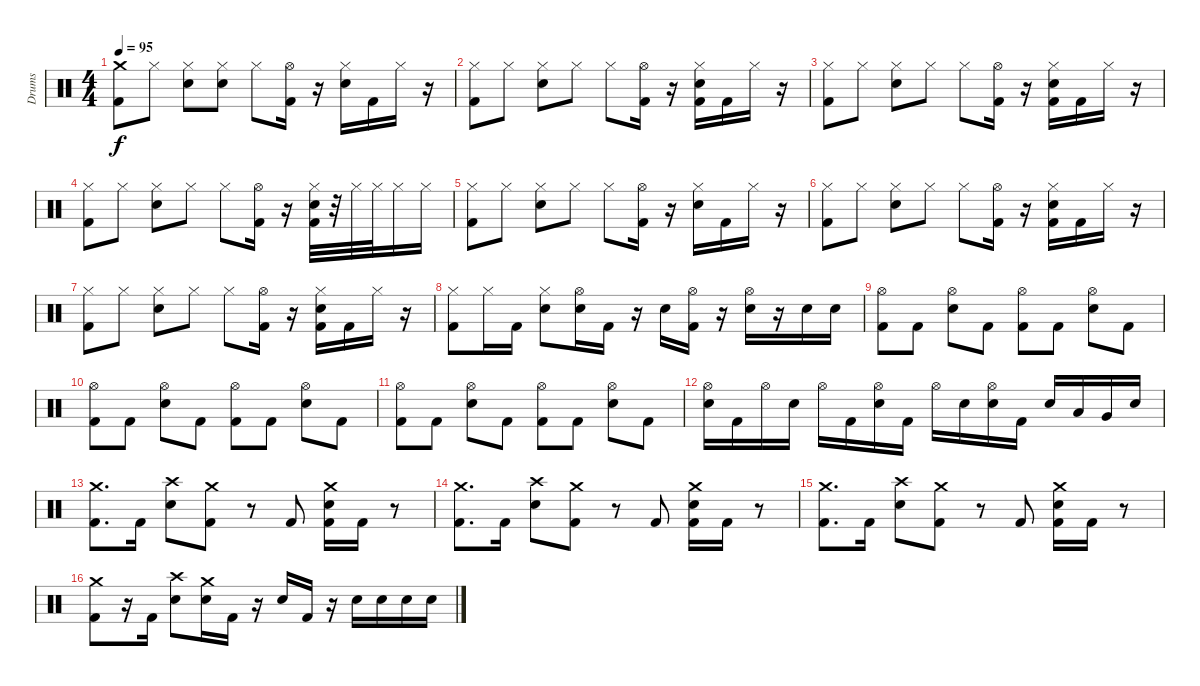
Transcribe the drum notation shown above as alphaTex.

\track ("Drums" "Drums") {instrument percussion}
\staff {score}
\articulation defaults
\ts (4 4)
\tempo 95
\clef neutral
\ks c
("Crash medium (hit)" "Kick (hit) 2").8{dy f} "Hi-Hat (closed)".8 ("Hi-Hat (closed)" "Electric Snare (hit)").8 ("Hi-Hat (closed)" "Electric Snare (hit)").8 "Hi-Hat (closed)".8 ("Hi-Hat (open)" "Kick (hit) 2").16 r.16 ("Hi-Hat (closed)" "Electric Snare (hit)").16 "Kick (hit) 2".16 "Hi-Hat (closed)".16 r.16 |
("Hi-Hat (closed)" "Kick (hit) 2").8 "Hi-Hat (closed)".8 ("Hi-Hat (closed)" "Electric Snare (hit)").8 "Hi-Hat (closed)".8 "Hi-Hat (closed)".8 ("Hi-Hat (open)" "Kick (hit) 2").16 r.16 ("Hi-Hat (closed)" "Electric Snare (hit)" "Kick (hit) 2").16 "Kick (hit) 2".16 "Hi-Hat (closed)".16 r.16 |
("Hi-Hat (closed)" "Kick (hit) 2").8 "Hi-Hat (closed)".8 ("Hi-Hat (closed)" "Electric Snare (hit)").8 "Hi-Hat (closed)".8 "Hi-Hat (closed)".8 ("Hi-Hat (open)" "Kick (hit) 2").16 r.16 ("Hi-Hat (closed)" "Electric Snare (hit)" "Kick (hit) 2").16 "Kick (hit) 2".16 "Hi-Hat (closed)".16 r.16 |
("Hi-Hat (closed)" "Kick (hit) 2").8 "Hi-Hat (closed)".8 ("Hi-Hat (closed)" "Electric Snare (hit)").8 "Hi-Hat (closed)".8 "Hi-Hat (closed)".8 ("Hi-Hat (open)" "Kick (hit) 2").16 r.16 ("Hi-Hat (closed)" "Electric Snare (hit)" "Kick (hit) 2").32 r.32 "Hi-Hat (closed)".32 "Hi-Hat (closed)".32 "Hi-Hat (closed)".16 "Hi-Hat (closed)".16 |
("Hi-Hat (closed)" "Kick (hit) 2").8 "Hi-Hat (closed)".8 ("Hi-Hat (closed)" "Electric Snare (hit)").8 "Hi-Hat (closed)".8 "Hi-Hat (closed)".8 ("Hi-Hat (open)" "Kick (hit) 2").16 r.16 ("Hi-Hat (closed)" "Electric Snare (hit)").16 "Kick (hit) 2".16 "Hi-Hat (closed)".16 r.16 |
("Hi-Hat (closed)" "Kick (hit) 2").8 "Hi-Hat (closed)".8 ("Hi-Hat (closed)" "Electric Snare (hit)").8 "Hi-Hat (closed)".8 "Hi-Hat (closed)".8 ("Hi-Hat (open)" "Kick (hit) 2").16 r.16 ("Hi-Hat (closed)" "Electric Snare (hit)" "Kick (hit) 2").16 "Kick (hit) 2".16 "Hi-Hat (closed)".16 r.16 |
("Hi-Hat (closed)" "Kick (hit) 2").8 "Hi-Hat (closed)".8 ("Hi-Hat (closed)" "Electric Snare (hit)").8 "Hi-Hat (closed)".8 "Hi-Hat (closed)".8 ("Hi-Hat (open)" "Kick (hit) 2").16 r.16 ("Hi-Hat (closed)" "Electric Snare (hit)" "Kick (hit) 2").16 "Kick (hit) 2".16 "Hi-Hat (closed)".16 r.16 |
("Hi-Hat (closed)" "Kick (hit) 2").8 "Hi-Hat (closed)".16 "Kick (hit) 2".16 ("Hi-Hat (closed)" "Electric Snare (hit)").8 ("Hi-Hat (open)" "Electric Snare (hit)").16 "Kick (hit) 2".16 r.16 "Electric Snare (hit)".16 ("Hi-Hat (open)" "Kick (hit) 2").16 r.16 ("Hi-Hat (open)" "Electric Snare (hit)").16 r.16 "Electric Snare (hit)".16 "Electric Snare (hit)".16 |
("Hi-Hat (open)" "Kick (hit) 2").8 "Kick (hit) 2".8 ("Hi-Hat (open)" "Electric Snare (hit)").8 "Kick (hit) 2".8 ("Hi-Hat (open)" "Kick (hit) 2").8 "Kick (hit) 2".8 ("Hi-Hat (open)" "Electric Snare (hit)").8 "Kick (hit) 2".8 |
("Hi-Hat (open)" "Kick (hit) 2").8 "Kick (hit) 2".8 ("Hi-Hat (open)" "Electric Snare (hit)").8 "Kick (hit) 2".8 ("Hi-Hat (open)" "Kick (hit) 2").8 "Kick (hit) 2".8 ("Hi-Hat (open)" "Electric Snare (hit)").8 "Kick (hit) 2".8 |
("Hi-Hat (open)" "Kick (hit) 2").8 "Kick (hit) 2".8 ("Hi-Hat (open)" "Electric Snare (hit)").8 "Kick (hit) 2".8 ("Hi-Hat (open)" "Kick (hit) 2").8 "Kick (hit) 2".8 ("Hi-Hat (open)" "Electric Snare (hit)").8 "Kick (hit) 2".8 |
("Hi-Hat (open)" "Electric Snare (hit)").16 "Kick (hit) 2".16 "Hi-Hat (open)".16 "Electric Snare (hit)".16 "Hi-Hat (open)".16 "Kick (hit) 2".16 ("Hi-Hat (open)" "Electric Snare (hit)").16 "Kick (hit) 2".16 "Hi-Hat (open)".16 "Electric Snare (hit)".16 ("Hi-Hat (open)" "Electric Snare (hit)").16 "Kick (hit) 2".16 "Electric Snare (hit)".16 "Low Tom (hit)".16 "Very Low Tom (hit)".16 "Electric Snare (hit)".16 |
("Crash medium (hit)" "Kick (hit) 2").8{d} "Kick (hit) 2".16 ("Crash high (hit)" "Electric Snare (hit)").8 ("Crash medium (hit)" "Kick (hit) 2").8 r.8 "Kick (hit) 2".8 ("Crash medium (hit)" "Electric Snare (hit)" "Kick (hit) 2").16 "Kick (hit) 2".16 r.8 |
("Crash medium (hit)" "Kick (hit) 2").8{d} "Kick (hit) 2".16 ("Crash high (hit)" "Electric Snare (hit)").8 ("Crash medium (hit)" "Kick (hit) 2").8 r.8 "Kick (hit) 2".8 ("Crash medium (hit)" "Electric Snare (hit)" "Kick (hit) 2").16 "Kick (hit) 2".16 r.8 |
("Crash medium (hit)" "Kick (hit) 2").8{d} "Kick (hit) 2".16 ("Crash high (hit)" "Electric Snare (hit)").8 ("Crash medium (hit)" "Kick (hit) 2").8 r.8 "Kick (hit) 2".8 ("Crash medium (hit)" "Electric Snare (hit)" "Kick (hit) 2").16 "Kick (hit) 2".16 r.8 |
("Crash medium (hit)" "Kick (hit) 2").8 r.16 "Kick (hit) 2".16 ("Crash high (hit)" "Electric Snare (hit)").8 ("Crash medium (hit)" "Electric Snare (hit)").16 "Kick (hit) 2".16 r.16 "Electric Snare (hit)".16 "Kick (hit) 2".16 r.16 "Electric Snare (hit)".16 "Electric Snare (hit)".16 "Electric Snare (hit)".16 "Electric Snare (hit)".16
